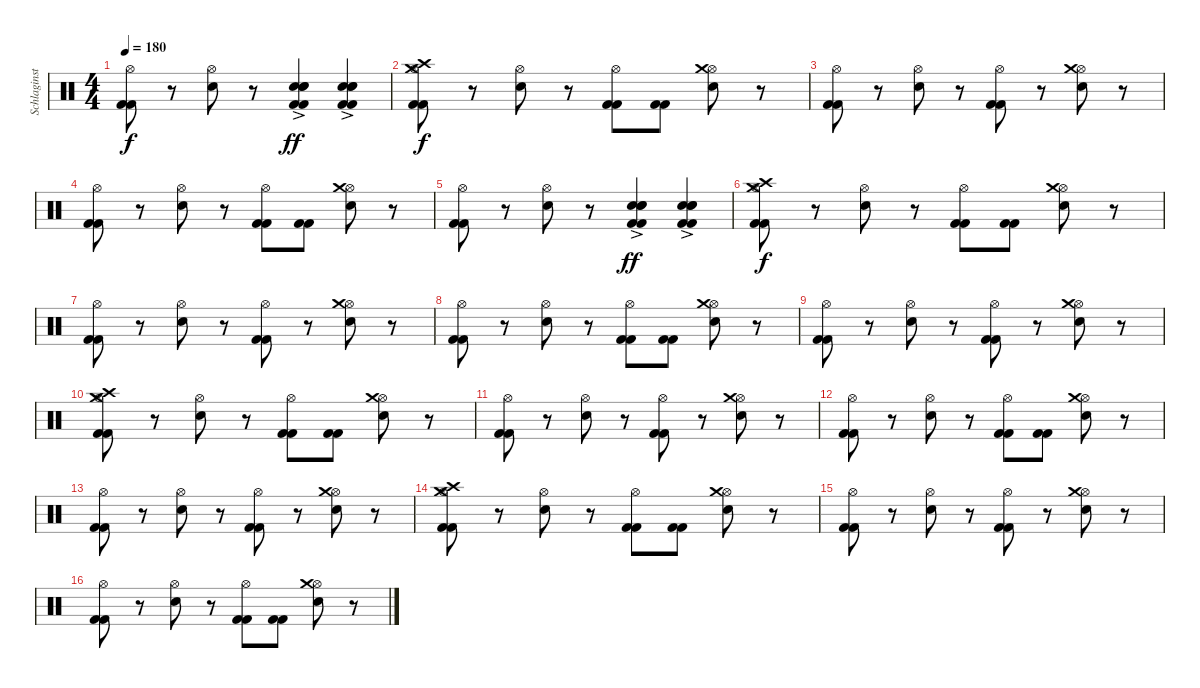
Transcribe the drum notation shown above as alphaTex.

\track ("Schlaginstrumente - Auswahl" "Schlaginst") {instrument percussion}
\staff {score}
\articulation defaults
\ts (4 4)
\tempo 180
\clef neutral
\ks c
("Kick (hit) 2" "Kick (hit) 2" "Hi-Hat (open)").8{dy f} r.8 ("Hi-Hat (open)" "Snare (hit) 2").8 r.8 ("Kick (hit) 2" "Kick (hit) 2" "Snare (hit) 2" "Snare (hit) 2"{ac} "Snare (hit) 2").4{dy ff} ("Kick (hit) 2" "Kick (hit) 2" "Snare (hit) 2" "Snare (hit) 2"{ac} "Snare (hit) 2").4 |
("Kick (hit) 2" "Kick (hit) 2" "Hi-Hat (open)" "Crash high (hit)" "Crash medium (hit)").8{dy f} r.8 ("Hi-Hat (open)" "Snare (hit) 2").8 r.8 ("Kick (hit) 2" "Kick (hit) 2" "Hi-Hat (open)").8 ("Kick (hit) 2" "Kick (hit) 2").8 ("Hi-Hat (open)" "Snare (hit) 2" "Crash medium (hit)").8 r.8 |
("Kick (hit) 2" "Kick (hit) 2" "Hi-Hat (open)").8 r.8 ("Hi-Hat (open)" "Snare (hit) 2").8 r.8 ("Kick (hit) 2" "Kick (hit) 2" "Hi-Hat (open)").8 r.8 ("Hi-Hat (open)" "Snare (hit) 2" "Crash medium (hit)").8 r.8 |
("Kick (hit) 2" "Kick (hit) 2" "Hi-Hat (open)").8 r.8 ("Hi-Hat (open)" "Snare (hit) 2").8 r.8 ("Kick (hit) 2" "Kick (hit) 2" "Hi-Hat (open)").8 ("Kick (hit) 2" "Kick (hit) 2").8 ("Hi-Hat (open)" "Snare (hit) 2" "Crash medium (hit)").8 r.8 |
("Kick (hit) 2" "Kick (hit) 2" "Hi-Hat (open)").8 r.8 ("Hi-Hat (open)" "Snare (hit) 2").8 r.8 ("Kick (hit) 2" "Kick (hit) 2" "Snare (hit) 2" "Snare (hit) 2"{ac} "Snare (hit) 2").4{dy ff} ("Kick (hit) 2" "Kick (hit) 2" "Snare (hit) 2" "Snare (hit) 2"{ac} "Snare (hit) 2").4 |
("Kick (hit) 2" "Kick (hit) 2" "Hi-Hat (open)" "Crash high (hit)" "Crash medium (hit)").8{dy f} r.8 ("Hi-Hat (open)" "Snare (hit) 2").8 r.8 ("Kick (hit) 2" "Kick (hit) 2" "Hi-Hat (open)").8 ("Kick (hit) 2" "Kick (hit) 2").8 ("Hi-Hat (open)" "Snare (hit) 2" "Crash medium (hit)").8 r.8 |
("Kick (hit) 2" "Kick (hit) 2" "Hi-Hat (open)").8 r.8 ("Hi-Hat (open)" "Snare (hit) 2").8 r.8 ("Kick (hit) 2" "Kick (hit) 2" "Hi-Hat (open)").8 r.8 ("Hi-Hat (open)" "Snare (hit) 2" "Crash medium (hit)").8 r.8 |
("Kick (hit) 2" "Kick (hit) 2" "Hi-Hat (open)").8 r.8 ("Hi-Hat (open)" "Snare (hit) 2").8 r.8 ("Kick (hit) 2" "Kick (hit) 2" "Hi-Hat (open)").8 ("Kick (hit) 2" "Kick (hit) 2").8 ("Hi-Hat (open)" "Snare (hit) 2" "Crash medium (hit)").8 r.8 |
("Kick (hit) 2" "Kick (hit) 2" "Hi-Hat (open)").8 r.8 ("Hi-Hat (open)" "Snare (hit) 2").8 r.8 ("Kick (hit) 2" "Kick (hit) 2" "Hi-Hat (open)").8 r.8 ("Hi-Hat (open)" "Snare (hit) 2" "Crash medium (hit)").8 r.8 |
("Kick (hit) 2" "Kick (hit) 2" "Hi-Hat (open)" "Crash high (hit)" "Crash medium (hit)").8 r.8 ("Hi-Hat (open)" "Snare (hit) 2").8 r.8 ("Kick (hit) 2" "Kick (hit) 2" "Hi-Hat (open)").8 ("Kick (hit) 2" "Kick (hit) 2").8 ("Hi-Hat (open)" "Snare (hit) 2" "Crash medium (hit)").8 r.8 |
("Kick (hit) 2" "Kick (hit) 2" "Hi-Hat (open)").8 r.8 ("Hi-Hat (open)" "Snare (hit) 2").8 r.8 ("Kick (hit) 2" "Kick (hit) 2" "Hi-Hat (open)").8 r.8 ("Hi-Hat (open)" "Snare (hit) 2" "Crash medium (hit)").8 r.8 |
("Kick (hit) 2" "Kick (hit) 2" "Hi-Hat (open)").8 r.8 ("Hi-Hat (open)" "Snare (hit) 2").8 r.8 ("Kick (hit) 2" "Kick (hit) 2" "Hi-Hat (open)").8 ("Kick (hit) 2" "Kick (hit) 2").8 ("Hi-Hat (open)" "Snare (hit) 2" "Crash medium (hit)").8 r.8 |
("Kick (hit) 2" "Kick (hit) 2" "Hi-Hat (open)").8 r.8 ("Hi-Hat (open)" "Snare (hit) 2").8 r.8 ("Kick (hit) 2" "Kick (hit) 2" "Hi-Hat (open)").8 r.8 ("Hi-Hat (open)" "Snare (hit) 2" "Crash medium (hit)").8 r.8 |
("Kick (hit) 2" "Kick (hit) 2" "Hi-Hat (open)" "Crash high (hit)" "Crash medium (hit)").8 r.8 ("Hi-Hat (open)" "Snare (hit) 2").8 r.8 ("Kick (hit) 2" "Kick (hit) 2" "Hi-Hat (open)").8 ("Kick (hit) 2" "Kick (hit) 2").8 ("Hi-Hat (open)" "Snare (hit) 2" "Crash medium (hit)").8 r.8 |
("Kick (hit) 2" "Kick (hit) 2" "Hi-Hat (open)").8 r.8 ("Hi-Hat (open)" "Snare (hit) 2").8 r.8 ("Kick (hit) 2" "Kick (hit) 2" "Hi-Hat (open)").8 r.8 ("Hi-Hat (open)" "Snare (hit) 2" "Crash medium (hit)").8 r.8 |
("Kick (hit) 2" "Kick (hit) 2" "Hi-Hat (open)").8 r.8 ("Hi-Hat (open)" "Snare (hit) 2").8 r.8 ("Kick (hit) 2" "Kick (hit) 2" "Hi-Hat (open)").8 ("Kick (hit) 2" "Kick (hit) 2").8 ("Hi-Hat (open)" "Snare (hit) 2" "Crash medium (hit)").8 r.8
